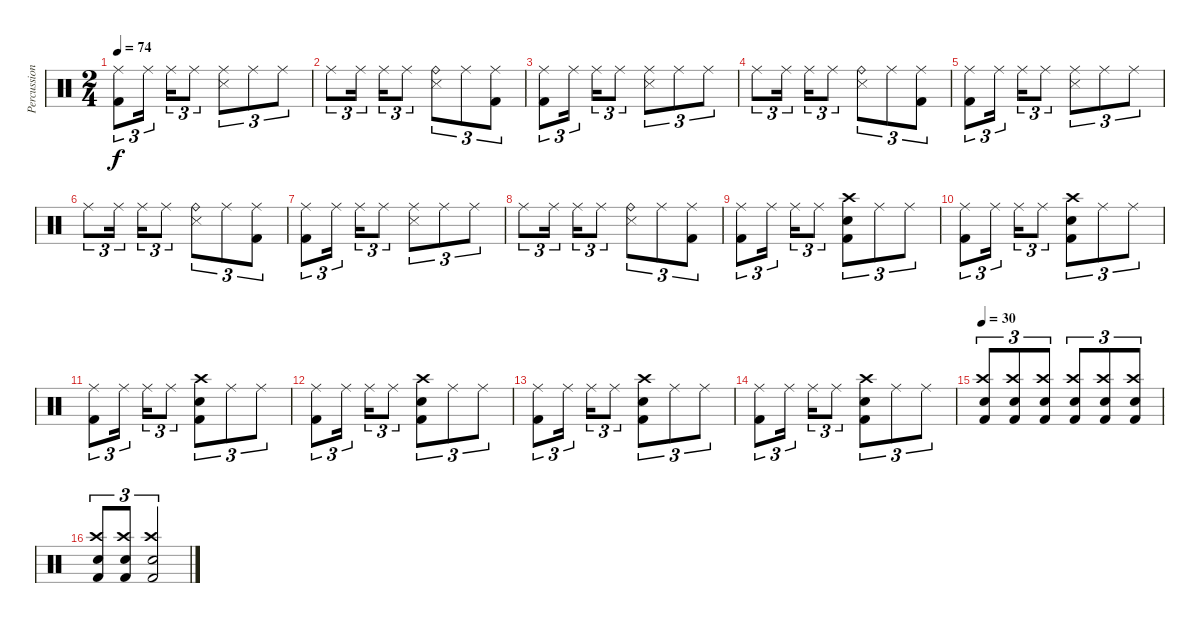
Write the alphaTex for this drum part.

\track ("Percussion" "Percussion") {instrument percussion}
\staff {score}
\articulation defaults
\ts (2 4)
\tempo 74
\clef neutral
\ks c
("Ride (middle)" "Kick (hit) 2").8{tu (3 2) dy f} "Ride (middle)".16{tu (3 2)} "Ride (middle)".16{tu (3 2)} "Ride (middle)".8{tu (3 2)} ("Ride (middle)" "Snare (side stick) 3").8{tu (3 2)} "Ride (middle)".8{tu (3 2)} "Ride (middle)".8{tu (3 2)} |
"Ride (middle)".8{tu (3 2)} "Ride (middle)".16{tu (3 2)} "Ride (middle)".16{tu (3 2)} "Ride (middle)".8{tu (3 2)} ("Ride (bell)" "Snare (side stick) 3").8{tu (3 2)} "Ride (middle)".8{tu (3 2)} ("Ride (middle)" "Kick (hit) 2").8{tu (3 2)} |
("Ride (middle)" "Kick (hit) 2").8{tu (3 2)} "Ride (middle)".16{tu (3 2)} "Ride (middle)".16{tu (3 2)} "Ride (middle)".8{tu (3 2)} ("Ride (middle)" "Snare (side stick) 3").8{tu (3 2)} "Ride (middle)".8{tu (3 2)} "Ride (middle)".8{tu (3 2)} |
"Ride (middle)".8{tu (3 2)} "Ride (middle)".16{tu (3 2)} "Ride (middle)".16{tu (3 2)} "Ride (middle)".8{tu (3 2)} ("Ride (bell)" "Snare (side stick) 3").8{tu (3 2)} "Ride (middle)".8{tu (3 2)} ("Ride (middle)" "Kick (hit) 2").8{tu (3 2)} |
("Ride (middle)" "Kick (hit) 2").8{tu (3 2)} "Ride (middle)".16{tu (3 2)} "Ride (middle)".16{tu (3 2)} "Ride (middle)".8{tu (3 2)} ("Ride (middle)" "Snare (side stick) 3").8{tu (3 2)} "Ride (middle)".8{tu (3 2)} "Ride (middle)".8{tu (3 2)} |
"Ride (middle)".8{tu (3 2)} "Ride (middle)".16{tu (3 2)} "Ride (middle)".16{tu (3 2)} "Ride (middle)".8{tu (3 2)} ("Ride (bell)" "Snare (side stick) 3").8{tu (3 2)} "Ride (middle)".8{tu (3 2)} ("Ride (middle)" "Kick (hit) 2").8{tu (3 2)} |
("Ride (middle)" "Kick (hit) 2").8{tu (3 2)} "Ride (middle)".16{tu (3 2)} "Ride (middle)".16{tu (3 2)} "Ride (middle)".8{tu (3 2)} ("Ride (middle)" "Snare (side stick) 3").8{tu (3 2)} "Ride (middle)".8{tu (3 2)} "Ride (middle)".8{tu (3 2)} |
"Ride (middle)".8{tu (3 2)} "Ride (middle)".16{tu (3 2)} "Ride (middle)".16{tu (3 2)} "Ride (middle)".8{tu (3 2)} ("Ride (bell)" "Snare (side stick) 3").8{tu (3 2)} "Ride (middle)".8{tu (3 2)} ("Ride (middle)" "Kick (hit) 2").8{tu (3 2)} |
("Ride (middle)" "Kick (hit) 2").8{tu (3 2)} "Ride (middle)".16{tu (3 2)} "Ride (middle)".16{tu (3 2)} "Ride (middle)".8{tu (3 2)} ("Crash high (hit)" "Kick (hit) 2" "Snare (hit) 2").8{tu (3 2)} "Ride (middle)".8{tu (3 2)} "Ride (middle)".8{tu (3 2)} |
("Ride (middle)" "Kick (hit) 2").8{tu (3 2)} "Ride (middle)".16{tu (3 2)} "Ride (middle)".16{tu (3 2)} "Ride (middle)".8{tu (3 2)} ("Crash high (hit)" "Kick (hit) 2" "Snare (hit) 2").8{tu (3 2)} "Ride (middle)".8{tu (3 2)} "Ride (middle)".8{tu (3 2)} |
("Ride (middle)" "Kick (hit) 2").8{tu (3 2)} "Ride (middle)".16{tu (3 2)} "Ride (middle)".16{tu (3 2)} "Ride (middle)".8{tu (3 2)} ("Crash high (hit)" "Kick (hit) 2" "Snare (hit) 2").8{tu (3 2)} "Ride (middle)".8{tu (3 2)} "Ride (middle)".8{tu (3 2)} |
("Ride (middle)" "Kick (hit) 2").8{tu (3 2)} "Ride (middle)".16{tu (3 2)} "Ride (middle)".16{tu (3 2)} "Ride (middle)".8{tu (3 2)} ("Crash high (hit)" "Kick (hit) 2" "Snare (hit) 2").8{tu (3 2)} "Ride (middle)".8{tu (3 2)} "Ride (middle)".8{tu (3 2)} |
("Ride (middle)" "Kick (hit) 2").8{tu (3 2)} "Ride (middle)".16{tu (3 2)} "Ride (middle)".16{tu (3 2)} "Ride (middle)".8{tu (3 2)} ("Crash high (hit)" "Kick (hit) 2" "Snare (hit) 2").8{tu (3 2)} "Ride (middle)".8{tu (3 2)} "Ride (middle)".8{tu (3 2)} |
("Ride (middle)" "Kick (hit) 2").8{tu (3 2)} "Ride (middle)".16{tu (3 2)} "Ride (middle)".16{tu (3 2)} "Ride (middle)".8{tu (3 2)} ("Crash high (hit)" "Kick (hit) 2" "Snare (hit) 2").8{tu (3 2)} "Ride (middle)".8{tu (3 2)} "Ride (middle)".8{tu (3 2)} |
\tempo 30
("Crash high (hit)" "Snare (hit) 2" "Kick (hit) 2").8{tu (3 2)} ("Crash high (hit)" "Snare (hit) 2" "Kick (hit) 2").8{tu (3 2)} ("Crash high (hit)" "Snare (hit) 2" "Kick (hit) 2").8{tu (3 2)} ("Crash high (hit)" "Snare (hit) 2" "Kick (hit) 2").8{tu (3 2)} ("Crash high (hit)" "Snare (hit) 2" "Kick (hit) 2").8{tu (3 2)} ("Crash high (hit)" "Snare (hit) 2" "Kick (hit) 2").8{tu (3 2)} |
("Crash high (hit)" "Snare (hit) 2" "Kick (hit) 2").8{tu (3 2)} ("Crash high (hit)" "Snare (hit) 2" "Kick (hit) 2").8{tu (3 2)} ("Crash high (hit)" "Snare (hit) 2" "Kick (hit) 2").2{tu (3 2)}
